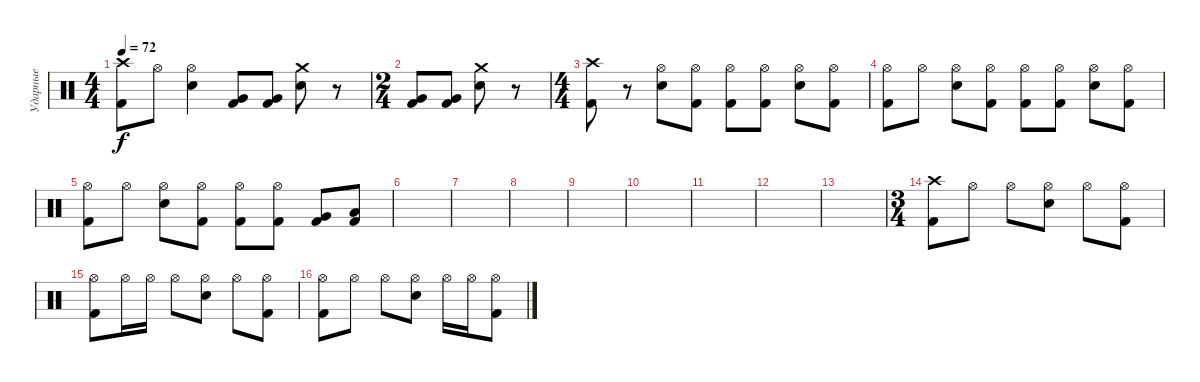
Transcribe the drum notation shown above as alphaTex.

\track ("Ударные" "Ударные") {instrument percussion}
\staff {score}
\articulation defaults
\ts (4 4)
\tempo 72
\clef neutral
\ks c
("Crash high (hit)" "Kick (hit) 2").8{dy f} "Hi-Hat (open)".8 ("Hi-Hat (open)" "Snare (hit) 2").4 ("Very Low Tom (hit)" "Kick (hit) 2").8 ("Very Low Tom (hit)" "Kick (hit) 2").8 ("Crash medium (hit)" "Snare (hit) 2").8 r.8 |
\ts (2 4)
("Very Low Tom (hit)" "Kick (hit) 2").8 ("Very Low Tom (hit)" "Kick (hit) 2").8 ("Crash medium (hit)" "Snare (hit) 2").8 r.8 |
\ts (4 4)
("Crash high (hit)" "Kick (hit) 2").8 r.8 ("Hi-Hat (open)" "Snare (hit) 2").8 ("Hi-Hat (open)" "Kick (hit) 2").8 ("Hi-Hat (open)" "Kick (hit) 2").8 ("Hi-Hat (open)" "Kick (hit) 2").8 ("Hi-Hat (open)" "Snare (hit) 2").8 ("Hi-Hat (open)" "Kick (hit) 2").8 |
("Hi-Hat (open)" "Kick (hit) 2").8 "Hi-Hat (open)".8 ("Hi-Hat (open)" "Snare (hit) 2").8 ("Hi-Hat (open)" "Kick (hit) 2").8 ("Hi-Hat (open)" "Kick (hit) 2").8 ("Hi-Hat (open)" "Kick (hit) 2").8 ("Hi-Hat (open)" "Snare (hit) 2").8 ("Hi-Hat (open)" "Kick (hit) 2").8 |
("Hi-Hat (open)" "Kick (hit) 2").8 "Hi-Hat (open)".8 ("Hi-Hat (open)" "Snare (hit) 2").8 ("Hi-Hat (open)" "Kick (hit) 2").8 ("Hi-Hat (open)" "Kick (hit) 2").8 ("Hi-Hat (open)" "Kick (hit) 2").8 ("Very Low Tom (hit)" "Kick (hit) 2").8 ("Low Floor Tom (hit)" "Kick (hit) 2").8 |
|
|
|
|
|
|
|
|
\ts (3 4)
("Crash high (hit)" "Kick (hit) 2").8 "Hi-Hat (open)".8 "Hi-Hat (open)".8 ("Hi-Hat (open)" "Snare (hit) 2").8 "Hi-Hat (open)".8 ("Hi-Hat (open)" "Kick (hit) 2").8 |
("Hi-Hat (open)" "Kick (hit) 2").8 "Hi-Hat (open)".16 "Hi-Hat (open)".16 "Hi-Hat (open)".8 ("Hi-Hat (open)" "Snare (hit) 2").8 "Hi-Hat (open)".8 ("Hi-Hat (open)" "Kick (hit) 2").8 |
("Hi-Hat (open)" "Kick (hit) 2").8 "Hi-Hat (open)".8 "Hi-Hat (open)".8 ("Hi-Hat (open)" "Snare (hit) 2").8 "Hi-Hat (open)".16 "Hi-Hat (open)".16 ("Hi-Hat (open)" "Kick (hit) 2").8
